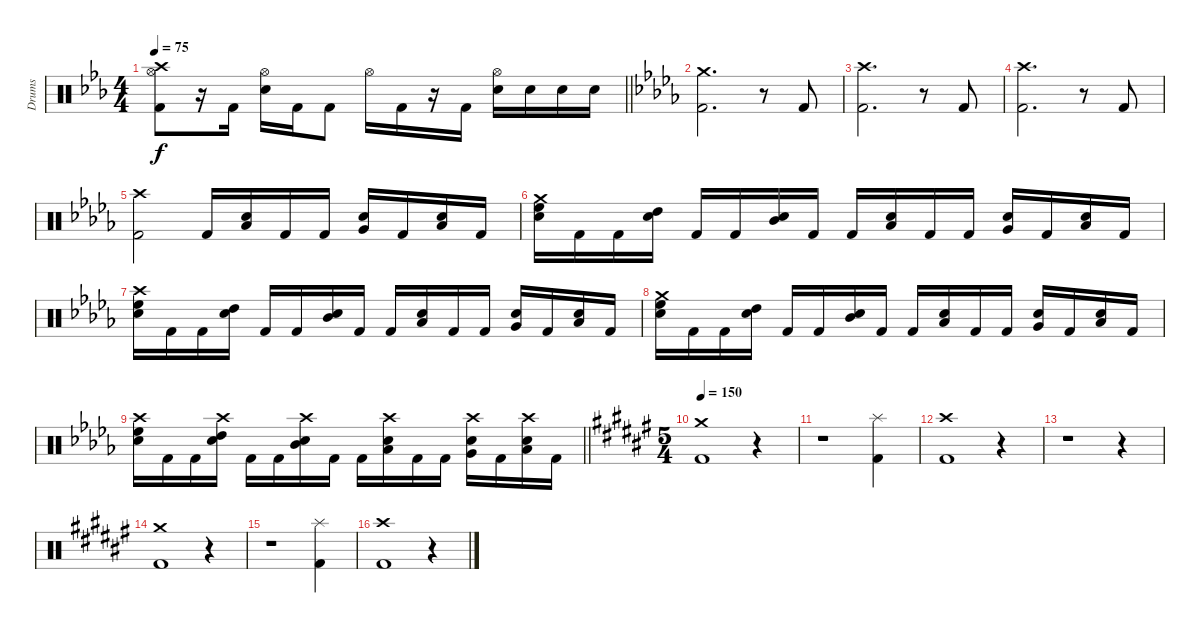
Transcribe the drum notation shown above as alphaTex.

\track ("Drums" "Drums") {instrument percussion}
\staff {score}
\articulation defaults
\ts (4 4)
\tempo 75
\clef neutral
\barLineRight lightlight
\ks cminor
("Crash high (hit)" "Hi-Hat (open)" "Kick (hit) 2").8{dy f} r.16 "Kick (hit) 2".16 ("Hi-Hat (open)" "Electric Snare (hit)").16 "Kick (hit) 2".16 "Kick (hit) 2".8 "Hi-Hat (open)".16 "Kick (hit) 2".16 r.16 "Kick (hit) 2".16 ("Hi-Hat (open)" "Electric Snare (hit)").16 "Electric Snare (hit)".16 "Electric Snare (hit)".16 "Electric Snare (hit)".16 |
\section ("" "")
\ks bbminor
("Crash medium (hit)" "Kick (hit) 2").2{d} r.8 "Kick (hit) 2".8 |
("Crash high (hit)" "Kick (hit) 2").2{d} r.8 "Kick (hit) 2".8 |
("Crash high (hit)" "Kick (hit) 2").2{d} r.8 "Kick (hit) 2".8 |
("Crash high (hit)" "Kick (hit) 2").2 "Kick (hit) 2".16 ("Low Tom (hit)" "Electric Snare (hit)").16 "Kick (hit) 2".16 "Kick (hit) 2".16 ("Very Low Tom (hit)" "Electric Snare (hit)").16 "Kick (hit) 2".16 ("Low Floor Tom (hit)" "Electric Snare (hit)").16 "Kick (hit) 2".16 |
("Crash medium (hit)" "High Floor Tom (hit)" "Electric Snare (hit)").16 "Kick (hit) 2".16 "Kick (hit) 2".16 ("High Tom (hit)" "Electric Snare (hit)").16 "Kick (hit) 2".16 "Kick (hit) 2".16 ("Mid Tom (hit)" "Electric Snare (hit)").16 "Kick (hit) 2".16 "Kick (hit) 2".16 ("Low Tom (hit)" "Electric Snare (hit)").16 "Kick (hit) 2".16 "Kick (hit) 2".16 ("Very Low Tom (hit)" "Electric Snare (hit)").16 "Kick (hit) 2".16 ("Low Floor Tom (hit)" "Electric Snare (hit)").16 "Kick (hit) 2".16 |
("Crash high (hit)" "High Floor Tom (hit)" "Electric Snare (hit)").16 "Kick (hit) 2".16 "Kick (hit) 2".16 ("High Tom (hit)" "Electric Snare (hit)").16 "Kick (hit) 2".16 "Kick (hit) 2".16 ("Mid Tom (hit)" "Electric Snare (hit)").16 "Kick (hit) 2".16 "Kick (hit) 2".16 ("Low Tom (hit)" "Electric Snare (hit)").16 "Kick (hit) 2".16 "Kick (hit) 2".16 ("Very Low Tom (hit)" "Electric Snare (hit)").16 "Kick (hit) 2".16 ("Low Floor Tom (hit)" "Electric Snare (hit)").16 "Kick (hit) 2".16 |
("Crash medium (hit)" "High Floor Tom (hit)" "Electric Snare (hit)").16 "Kick (hit) 2".16 "Kick (hit) 2".16 ("High Tom (hit)" "Electric Snare (hit)").16 "Kick (hit) 2".16 "Kick (hit) 2".16 ("Mid Tom (hit)" "Electric Snare (hit)").16 "Kick (hit) 2".16 "Kick (hit) 2".16 ("Low Tom (hit)" "Electric Snare (hit)").16 "Kick (hit) 2".16 "Kick (hit) 2".16 ("Very Low Tom (hit)" "Electric Snare (hit)").16 "Kick (hit) 2".16 ("Low Floor Tom (hit)" "Electric Snare (hit)").16 "Kick (hit) 2".16 |
\barLineRight lightlight
("Crash high (hit)" "High Floor Tom (hit)" "Electric Snare (hit)").16 "Kick (hit) 2".16 "Kick (hit) 2".16 ("Crash high (hit)" "High Tom (hit)" "Electric Snare (hit)").16 "Kick (hit) 2".16 "Kick (hit) 2".16 ("Crash high (hit)" "Mid Tom (hit)" "Electric Snare (hit)").16 "Kick (hit) 2".16 "Kick (hit) 2".16 ("Crash high (hit)" "Low Tom (hit)" "Electric Snare (hit)").16 "Kick (hit) 2".16 "Kick (hit) 2".16 ("Crash high (hit)" "Very Low Tom (hit)" "Electric Snare (hit)").16 "Kick (hit) 2".16 ("Crash high (hit)" "Low Floor Tom (hit)" "Electric Snare (hit)").16 "Kick (hit) 2".16 |
\ts (5 4)
\section ("" "")
\tempo 150
\ks d#minor
("Crash medium (hit)" "Kick (hit) 2").1 r.4 |
r.1 ("Splash (hit)" "Kick (hit) 2").4 |
("Crash high (hit)" "Kick (hit) 2").1 r.4 |
r.1 r.4 |
("Crash medium (hit)" "Kick (hit) 2").1 r.4 |
r.1 ("Splash (hit)" "Kick (hit) 2").4 |
("Crash high (hit)" "Kick (hit) 2").1 r.4
